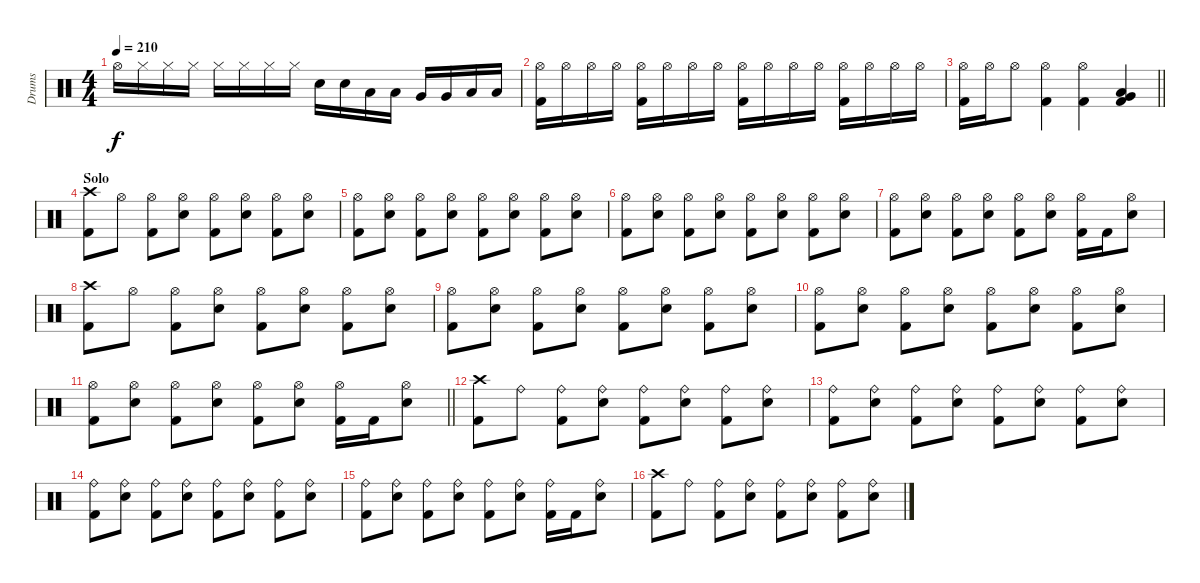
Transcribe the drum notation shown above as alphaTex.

\track ("Drums" "Drums") {instrument percussion}
\staff {score}
\articulation defaults
\ts (4 4)
\tempo 210
\clef neutral
\ks c "Hi-Hat (open)".16{dy f} "Hi-Hat (closed)".16 "Hi-Hat (closed)".16 "Hi-Hat (closed)".16 "Hi-Hat (closed)".16 "Hi-Hat (closed)".16 "Hi-Hat (closed)".16 "Hi-Hat (closed)".16 "Snare (hit) 2".16 "Snare (hit) 2".16 "Low Tom (hit)".16 "Low Tom (hit)".16 "Very Low Tom (hit)".16 "Very Low Tom (hit)".16 "Low Floor Tom (hit)".16 "Low Floor Tom (hit)".16
|
("Hi-Hat (open)" "Kick (hit) 2").16 "Hi-Hat (open)".16 "Hi-Hat (open)".16 "Hi-Hat (open)".16 ("Hi-Hat (open)" "Kick (hit) 2").16 "Hi-Hat (open)".16 "Hi-Hat (open)".16 "Hi-Hat (open)".16 ("Hi-Hat (open)" "Kick (hit) 2").16 "Hi-Hat (open)".16 "Hi-Hat (open)".16 "Hi-Hat (open)".16 ("Hi-Hat (open)" "Kick (hit) 2").16 "Hi-Hat (open)".16 "Hi-Hat (open)".16 "Hi-Hat (open)".16 |
\barLineRight lightlight
("Hi-Hat (open)" "Kick (hit) 2").16 "Hi-Hat (open)".16 "Hi-Hat (open)".8 ("Hi-Hat (open)" "Kick (hit) 2").4 ("Hi-Hat (open)" "Kick (hit) 2").4 ("Very Low Tom (hit)" "Low Floor Tom (hit)" "Kick (hit) 2").4 |
\section ("" "Solo")
("Crash high (hit)" "Kick (hit) 2").8 "Hi-Hat (open)".8 ("Hi-Hat (open)" "Kick (hit) 2").8 ("Hi-Hat (open)" "Snare (hit) 2").8 ("Hi-Hat (open)" "Kick (hit) 2").8 ("Hi-Hat (open)" "Snare (hit) 2").8 ("Hi-Hat (open)" "Kick (hit) 2").8 ("Hi-Hat (open)" "Snare (hit) 2").8 |
("Hi-Hat (open)" "Kick (hit) 2").8 ("Hi-Hat (open)" "Snare (hit) 2").8 ("Hi-Hat (open)" "Kick (hit) 2").8 ("Hi-Hat (open)" "Snare (hit) 2").8 ("Hi-Hat (open)" "Kick (hit) 2").8 ("Hi-Hat (open)" "Snare (hit) 2").8 ("Hi-Hat (open)" "Kick (hit) 2").8 ("Hi-Hat (open)" "Snare (hit) 2").8 |
("Hi-Hat (open)" "Kick (hit) 2").8 ("Hi-Hat (open)" "Snare (hit) 2").8 ("Hi-Hat (open)" "Kick (hit) 2").8 ("Hi-Hat (open)" "Snare (hit) 2").8 ("Hi-Hat (open)" "Kick (hit) 2").8 ("Hi-Hat (open)" "Snare (hit) 2").8 ("Hi-Hat (open)" "Kick (hit) 2").8 ("Hi-Hat (open)" "Snare (hit) 2").8 |
("Hi-Hat (open)" "Kick (hit) 2").8 ("Hi-Hat (open)" "Snare (hit) 2").8 ("Hi-Hat (open)" "Kick (hit) 2").8 ("Hi-Hat (open)" "Snare (hit) 2").8 ("Hi-Hat (open)" "Kick (hit) 2").8 ("Hi-Hat (open)" "Snare (hit) 2").8 ("Hi-Hat (open)" "Kick (hit) 2").16 "Kick (hit) 2".16 ("Hi-Hat (open)" "Snare (hit) 2").8 |
("Crash high (hit)" "Kick (hit) 2").8 "Hi-Hat (open)".8 ("Hi-Hat (open)" "Kick (hit) 2").8 ("Hi-Hat (open)" "Snare (hit) 2").8 ("Hi-Hat (open)" "Kick (hit) 2").8 ("Hi-Hat (open)" "Snare (hit) 2").8 ("Hi-Hat (open)" "Kick (hit) 2").8 ("Hi-Hat (open)" "Snare (hit) 2").8 |
("Hi-Hat (open)" "Kick (hit) 2").8 ("Hi-Hat (open)" "Snare (hit) 2").8 ("Hi-Hat (open)" "Kick (hit) 2").8 ("Hi-Hat (open)" "Snare (hit) 2").8 ("Hi-Hat (open)" "Kick (hit) 2").8 ("Hi-Hat (open)" "Snare (hit) 2").8 ("Hi-Hat (open)" "Kick (hit) 2").8 ("Hi-Hat (open)" "Snare (hit) 2").8 |
("Hi-Hat (open)" "Kick (hit) 2").8 ("Hi-Hat (open)" "Snare (hit) 2").8 ("Hi-Hat (open)" "Kick (hit) 2").8 ("Hi-Hat (open)" "Snare (hit) 2").8 ("Hi-Hat (open)" "Kick (hit) 2").8 ("Hi-Hat (open)" "Snare (hit) 2").8 ("Hi-Hat (open)" "Kick (hit) 2").8 ("Hi-Hat (open)" "Snare (hit) 2").8 |
\barLineRight lightlight
("Hi-Hat (open)" "Kick (hit) 2").8 ("Hi-Hat (open)" "Snare (hit) 2").8 ("Hi-Hat (open)" "Kick (hit) 2").8 ("Hi-Hat (open)" "Snare (hit) 2").8 ("Hi-Hat (open)" "Kick (hit) 2").8 ("Hi-Hat (open)" "Snare (hit) 2").8 ("Hi-Hat (open)" "Kick (hit) 2").16 "Kick (hit) 2".16 ("Hi-Hat (open)" "Snare (hit) 2").8 |
("Crash high (hit)" "Kick (hit) 2").8 "Ride (bell)".8 ("Ride (bell)" "Kick (hit) 2").8 ("Ride (bell)" "Snare (hit) 2").8 ("Ride (bell)" "Kick (hit) 2").8 ("Ride (bell)" "Snare (hit) 2").8 ("Ride (bell)" "Kick (hit) 2").8 ("Ride (bell)" "Snare (hit) 2").8 |
("Ride (bell)" "Kick (hit) 2").8 ("Ride (bell)" "Snare (hit) 2").8 ("Ride (bell)" "Kick (hit) 2").8 ("Ride (bell)" "Snare (hit) 2").8 ("Ride (bell)" "Kick (hit) 2").8 ("Ride (bell)" "Snare (hit) 2").8 ("Ride (bell)" "Kick (hit) 2").8 ("Ride (bell)" "Snare (hit) 2").8 |
("Ride (bell)" "Kick (hit) 2").8 ("Ride (bell)" "Snare (hit) 2").8 ("Ride (bell)" "Kick (hit) 2").8 ("Ride (bell)" "Snare (hit) 2").8 ("Ride (bell)" "Kick (hit) 2").8 ("Ride (bell)" "Snare (hit) 2").8 ("Ride (bell)" "Kick (hit) 2").8 ("Ride (bell)" "Snare (hit) 2").8 |
("Ride (bell)" "Kick (hit) 2").8 ("Ride (bell)" "Snare (hit) 2").8 ("Ride (bell)" "Kick (hit) 2").8 ("Ride (bell)" "Snare (hit) 2").8 ("Ride (bell)" "Kick (hit) 2").8 ("Ride (bell)" "Snare (hit) 2").8 ("Ride (bell)" "Kick (hit) 2").16 "Kick (hit) 2".16 ("Ride (bell)" "Snare (hit) 2").8 |
("Crash high (hit)" "Kick (hit) 2").8 "Ride (bell)".8 ("Ride (bell)" "Kick (hit) 2").8 ("Ride (bell)" "Snare (hit) 2").8 ("Ride (bell)" "Kick (hit) 2").8 ("Ride (bell)" "Snare (hit) 2").8 ("Ride (bell)" "Kick (hit) 2").8 ("Ride (bell)" "Snare (hit) 2").8
